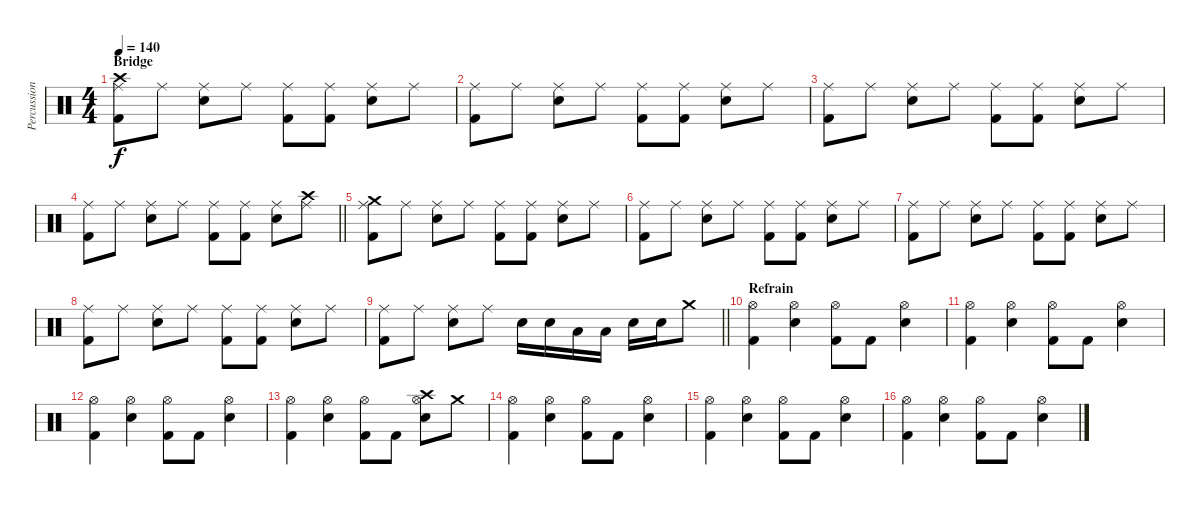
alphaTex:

\track ("Percussion" "Percussion") {instrument percussion}
\staff {score}
\articulation defaults
\ts (4 4)
\section ("" "Bridge")
\tempo 140
\clef neutral
\ks c
("Crash high (hit)" "Kick (hit) 2" "Ride (middle)").8{dy f} "Ride (middle)".8 ("Snare (hit) 2" "Ride (middle)").8 "Ride (middle)".8 ("Kick (hit) 2" "Ride (middle)").8 ("Kick (hit) 2" "Ride (middle)").8 ("Snare (hit) 2" "Ride (middle)").8 "Ride (middle)".8 |
("Kick (hit) 2" "Ride (middle)").8 "Ride (middle)".8 ("Snare (hit) 2" "Ride (middle)").8 "Ride (middle)".8 ("Kick (hit) 2" "Ride (middle)").8 ("Kick (hit) 2" "Ride (middle)").8 ("Snare (hit) 2" "Ride (middle)").8 "Ride (middle)".8 |
("Kick (hit) 2" "Ride (middle)").8 "Ride (middle)".8 ("Snare (hit) 2" "Ride (middle)").8 "Ride (middle)".8 ("Kick (hit) 2" "Ride (middle)").8 ("Kick (hit) 2" "Ride (middle)").8 ("Snare (hit) 2" "Ride (middle)").8 "Ride (middle)".8 |
\barLineRight lightlight
("Kick (hit) 2" "Ride (middle)").8 "Ride (middle)".8 ("Snare (hit) 2" "Ride (middle)").8 "Ride (middle)".8 ("Kick (hit) 2" "Ride (middle)").8 ("Kick (hit) 2" "Ride (middle)").8 ("Snare (hit) 2" "Ride (middle)").8 ("Crash high (hit)" "Ride (middle)").8 |
("Crash medium (hit)" "Kick (hit) 2" "Ride (middle)").8 "Ride (middle)".8 ("Snare (hit) 2" "Ride (middle)").8 "Ride (middle)".8 ("Kick (hit) 2" "Ride (middle)").8 ("Kick (hit) 2" "Ride (middle)").8 ("Snare (hit) 2" "Ride (middle)").8 "Ride (middle)".8 |
("Kick (hit) 2" "Ride (middle)").8 "Ride (middle)".8 ("Snare (hit) 2" "Ride (middle)").8 "Ride (middle)".8 ("Kick (hit) 2" "Ride (middle)").8 ("Kick (hit) 2" "Ride (middle)").8 ("Snare (hit) 2" "Ride (middle)").8 "Ride (middle)".8 |
("Kick (hit) 2" "Ride (middle)").8 "Ride (middle)".8 ("Snare (hit) 2" "Ride (middle)").8 "Ride (middle)".8 ("Kick (hit) 2" "Ride (middle)").8 ("Kick (hit) 2" "Ride (middle)").8 ("Snare (hit) 2" "Ride (middle)").8 "Ride (middle)".8 |
("Kick (hit) 2" "Ride (middle)").8 "Ride (middle)".8 ("Snare (hit) 2" "Ride (middle)").8 "Ride (middle)".8 ("Kick (hit) 2" "Ride (middle)").8 ("Kick (hit) 2" "Ride (middle)").8 ("Snare (hit) 2" "Ride (middle)").8 "Ride (middle)".8 |
\barLineRight lightlight
("Kick (hit) 2" "Ride (middle)").8 "Ride (middle)".8 ("Snare (hit) 2" "Ride (middle)").8 "Ride (middle)".8 "Snare (hit) 2".16 "Snare (hit) 2".16 "Low Tom (hit)".16 "Low Tom (hit)".16 "Snare (hit) 2".16 "Snare (hit) 2".16 "Crash medium (hit)".8 |
\section ("" "Refrain")
("Kick (hit) 2" "Hi-Hat (open)").4 ("Snare (hit) 2" "Hi-Hat (open)").4 ("Kick (hit) 2" "Hi-Hat (open)").8 "Kick (hit) 2".8 ("Snare (hit) 2" "Hi-Hat (open)").4 |
("Kick (hit) 2" "Hi-Hat (open)").4 ("Snare (hit) 2" "Hi-Hat (open)").4 ("Kick (hit) 2" "Hi-Hat (open)").8 "Kick (hit) 2".8 ("Snare (hit) 2" "Hi-Hat (open)").4 |
("Kick (hit) 2" "Hi-Hat (open)").4 ("Snare (hit) 2" "Hi-Hat (open)").4 ("Kick (hit) 2" "Hi-Hat (open)").8 "Kick (hit) 2".8 ("Snare (hit) 2" "Hi-Hat (open)").4 |
("Kick (hit) 2" "Hi-Hat (open)").4 ("Snare (hit) 2" "Hi-Hat (open)").4 ("Kick (hit) 2" "Hi-Hat (open)").8 "Kick (hit) 2".8 ("Crash high (hit)" "Snare (hit) 2" "Hi-Hat (open)").8 "Crash medium (hit)".8 |
("Kick (hit) 2" "Hi-Hat (open)").4 ("Snare (hit) 2" "Hi-Hat (open)").4 ("Kick (hit) 2" "Hi-Hat (open)").8 "Kick (hit) 2".8 ("Snare (hit) 2" "Hi-Hat (open)").4 |
("Kick (hit) 2" "Hi-Hat (open)").4 ("Snare (hit) 2" "Hi-Hat (open)").4 ("Kick (hit) 2" "Hi-Hat (open)").8 "Kick (hit) 2".8 ("Snare (hit) 2" "Hi-Hat (open)").4 |
("Kick (hit) 2" "Hi-Hat (open)").4 ("Snare (hit) 2" "Hi-Hat (open)").4 ("Kick (hit) 2" "Hi-Hat (open)").8 "Kick (hit) 2".8 ("Snare (hit) 2" "Hi-Hat (open)").4
